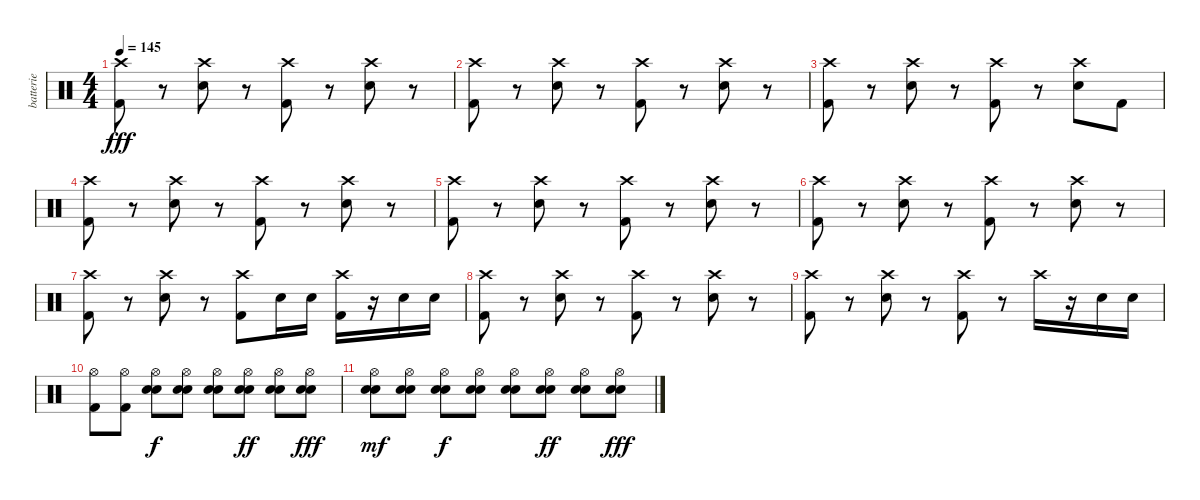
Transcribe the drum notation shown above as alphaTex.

\track ("batterie" "batterie") {instrument percussion}
\staff {score}
\articulation defaults
\ts (4 4)
\tempo 145
\clef neutral
\ks c
("Crash high (hit)" "Kick (hit) 2").8{dy fff} r.8 ("Crash high (hit)" "Electric Snare (hit)").8 r.8 ("Crash high (hit)" "Kick (hit) 2").8 r.8 ("Crash high (hit)" "Electric Snare (hit)").8 r.8 |
("Crash high (hit)" "Kick (hit) 2").8 r.8 ("Crash high (hit)" "Electric Snare (hit)").8 r.8 ("Crash high (hit)" "Kick (hit) 2").8 r.8 ("Crash high (hit)" "Electric Snare (hit)").8 r.8 |
("Crash high (hit)" "Kick (hit) 2").8 r.8 ("Crash high (hit)" "Electric Snare (hit)").8 r.8 ("Crash high (hit)" "Kick (hit) 2").8 r.8 ("Crash high (hit)" "Electric Snare (hit)").8 "Kick (hit) 2".8 |
("Crash high (hit)" "Kick (hit) 2").8 r.8 ("Crash high (hit)" "Electric Snare (hit)").8 r.8 ("Crash high (hit)" "Kick (hit) 2").8 r.8 ("Crash high (hit)" "Electric Snare (hit)").8 r.8 |
("Crash high (hit)" "Kick (hit) 2").8 r.8 ("Crash high (hit)" "Electric Snare (hit)").8 r.8 ("Crash high (hit)" "Kick (hit) 2").8 r.8 ("Crash high (hit)" "Electric Snare (hit)").8 r.8 |
("Crash high (hit)" "Kick (hit) 2").8 r.8 ("Crash high (hit)" "Electric Snare (hit)").8 r.8 ("Crash high (hit)" "Kick (hit) 2").8 r.8 ("Crash high (hit)" "Electric Snare (hit)").8 r.8 |
("Crash high (hit)" "Kick (hit) 2").8 r.8 ("Crash high (hit)" "Electric Snare (hit)").8 r.8 ("Crash high (hit)" "Kick (hit) 2").8 "Electric Snare (hit)".16 "Electric Snare (hit)".16 ("Crash high (hit)" "Kick (hit) 2").16 r.16 "Electric Snare (hit)".16 "Electric Snare (hit)".16 |
("Crash high (hit)" "Kick (hit) 2").8 r.8 ("Crash high (hit)" "Electric Snare (hit)").8 r.8 ("Crash high (hit)" "Kick (hit) 2").8 r.8 ("Crash high (hit)" "Electric Snare (hit)").8 r.8 |
("Crash high (hit)" "Kick (hit) 2").8 r.8 ("Crash high (hit)" "Electric Snare (hit)").8 r.8 ("Crash high (hit)" "Kick (hit) 2").8 r.8 "Crash high (hit)".16 r.16 "Electric Snare (hit)".16 "Electric Snare (hit)".16 |
("Hi-Hat (open)" "Kick (hit) 2").8 ("Hi-Hat (open)" "Kick (hit) 2").8 ("Hi-Hat (open)" "Electric Snare (hit)" "Snare (hit) 2").8{dy f} ("Hi-Hat (open)" "Electric Snare (hit)" "Snare (hit) 2").8 ("Hi-Hat (open)" "Electric Snare (hit)" "Snare (hit) 2").8 ("Hi-Hat (open)" "Electric Snare (hit)" "Snare (hit) 2").8{dy ff} ("Hi-Hat (open)" "Electric Snare (hit)" "Snare (hit) 2").8 ("Hi-Hat (open)" "Electric Snare (hit)" "Snare (hit) 2").8{dy fff} |
("Hi-Hat (open)" "Electric Snare (hit)" "Snare (hit) 2").8{dy mf} ("Hi-Hat (open)" "Electric Snare (hit)" "Snare (hit) 2").8 ("Hi-Hat (open)" "Electric Snare (hit)" "Snare (hit) 2").8{dy f} ("Hi-Hat (open)" "Electric Snare (hit)" "Snare (hit) 2").8 ("Hi-Hat (open)" "Electric Snare (hit)" "Snare (hit) 2").8 ("Hi-Hat (open)" "Electric Snare (hit)" "Snare (hit) 2").8{dy ff} ("Hi-Hat (open)" "Electric Snare (hit)" "Snare (hit) 2").8 ("Hi-Hat (open)" "Electric Snare (hit)" "Snare (hit) 2").8{dy fff}
